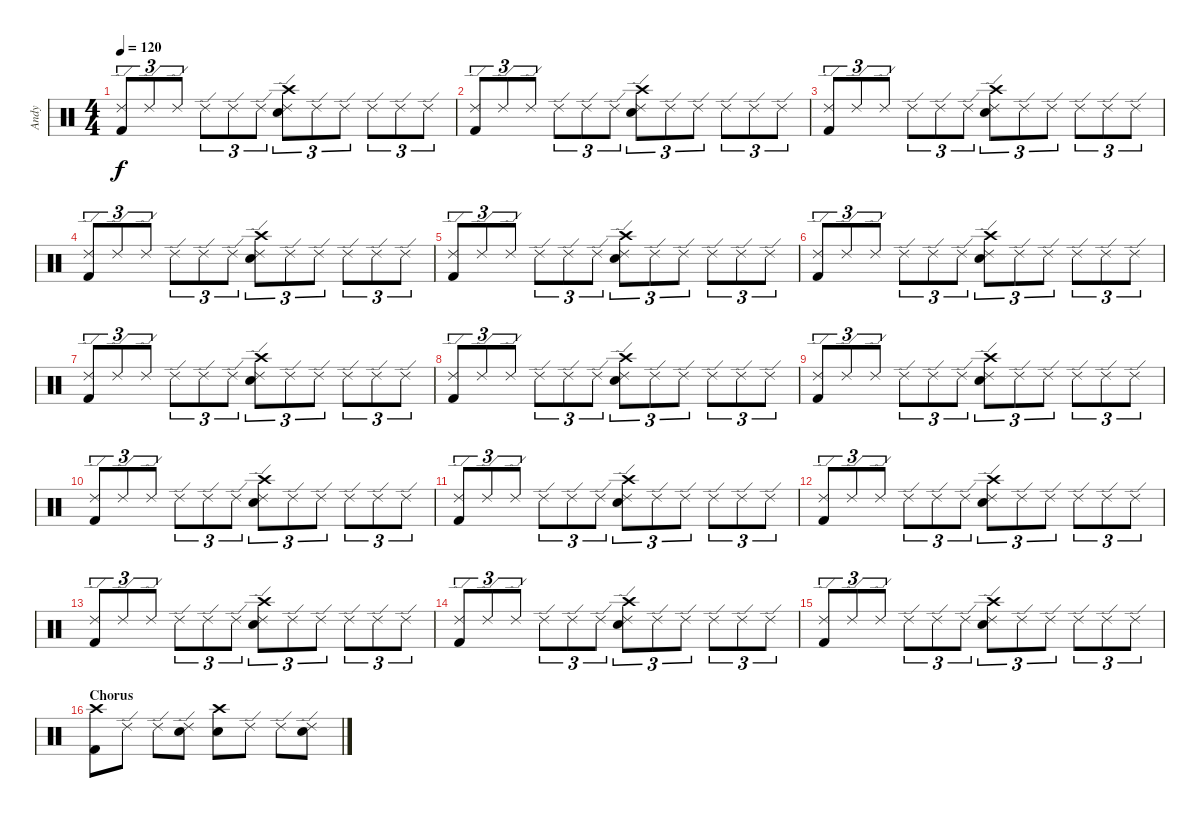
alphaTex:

\track ("Andy" "Andy") {instrument percussion}
\staff {score}
\articulation defaults
\ts (4 4)
\tempo 120
\clef neutral
\ks c
("Ride (edge) 2" "Kick (hit) 2").8{tu (3 2) dy f} "Ride (edge) 2".8{tu (3 2)} "Ride (edge) 2".8{tu (3 2)} "Ride (edge) 2".8{tu (3 2)} "Ride (edge) 2".8{tu (3 2)} "Ride (edge) 2".8{tu (3 2)} ("Crash high (hit)" "Ride (edge) 2" "Snare (hit) 2").8{tu (3 2)} "Ride (edge) 2".8{tu (3 2)} "Ride (edge) 2".8{tu (3 2)} "Ride (edge) 2".8{tu (3 2)} "Ride (edge) 2".8{tu (3 2)} "Ride (edge) 2".8{tu (3 2)} |
("Ride (edge) 2" "Kick (hit) 2").8{tu (3 2)} "Ride (edge) 2".8{tu (3 2)} "Ride (edge) 2".8{tu (3 2)} "Ride (edge) 2".8{tu (3 2)} "Ride (edge) 2".8{tu (3 2)} "Ride (edge) 2".8{tu (3 2)} ("Crash high (hit)" "Ride (edge) 2" "Snare (hit) 2").8{tu (3 2)} "Ride (edge) 2".8{tu (3 2)} "Ride (edge) 2".8{tu (3 2)} "Ride (edge) 2".8{tu (3 2)} "Ride (edge) 2".8{tu (3 2)} "Ride (edge) 2".8{tu (3 2)} |
("Ride (edge) 2" "Kick (hit) 2").8{tu (3 2)} "Ride (edge) 2".8{tu (3 2)} "Ride (edge) 2".8{tu (3 2)} "Ride (edge) 2".8{tu (3 2)} "Ride (edge) 2".8{tu (3 2)} "Ride (edge) 2".8{tu (3 2)} ("Crash high (hit)" "Ride (edge) 2" "Snare (hit) 2").8{tu (3 2)} "Ride (edge) 2".8{tu (3 2)} "Ride (edge) 2".8{tu (3 2)} "Ride (edge) 2".8{tu (3 2)} "Ride (edge) 2".8{tu (3 2)} "Ride (edge) 2".8{tu (3 2)} |
("Ride (edge) 2" "Kick (hit) 2").8{tu (3 2)} "Ride (edge) 2".8{tu (3 2)} "Ride (edge) 2".8{tu (3 2)} "Ride (edge) 2".8{tu (3 2)} "Ride (edge) 2".8{tu (3 2)} "Ride (edge) 2".8{tu (3 2)} ("Crash high (hit)" "Ride (edge) 2" "Snare (hit) 2").8{tu (3 2)} "Ride (edge) 2".8{tu (3 2)} "Ride (edge) 2".8{tu (3 2)} "Ride (edge) 2".8{tu (3 2)} "Ride (edge) 2".8{tu (3 2)} "Ride (edge) 2".8{tu (3 2)} |
("Ride (edge) 2" "Kick (hit) 2").8{tu (3 2)} "Ride (edge) 2".8{tu (3 2)} "Ride (edge) 2".8{tu (3 2)} "Ride (edge) 2".8{tu (3 2)} "Ride (edge) 2".8{tu (3 2)} "Ride (edge) 2".8{tu (3 2)} ("Crash high (hit)" "Ride (edge) 2" "Snare (hit) 2").8{tu (3 2)} "Ride (edge) 2".8{tu (3 2)} "Ride (edge) 2".8{tu (3 2)} "Ride (edge) 2".8{tu (3 2)} "Ride (edge) 2".8{tu (3 2)} "Ride (edge) 2".8{tu (3 2)} |
("Ride (edge) 2" "Kick (hit) 2").8{tu (3 2)} "Ride (edge) 2".8{tu (3 2)} "Ride (edge) 2".8{tu (3 2)} "Ride (edge) 2".8{tu (3 2)} "Ride (edge) 2".8{tu (3 2)} "Ride (edge) 2".8{tu (3 2)} ("Crash high (hit)" "Ride (edge) 2" "Snare (hit) 2").8{tu (3 2)} "Ride (edge) 2".8{tu (3 2)} "Ride (edge) 2".8{tu (3 2)} "Ride (edge) 2".8{tu (3 2)} "Ride (edge) 2".8{tu (3 2)} "Ride (edge) 2".8{tu (3 2)} |
("Ride (edge) 2" "Kick (hit) 2").8{tu (3 2)} "Ride (edge) 2".8{tu (3 2)} "Ride (edge) 2".8{tu (3 2)} "Ride (edge) 2".8{tu (3 2)} "Ride (edge) 2".8{tu (3 2)} "Ride (edge) 2".8{tu (3 2)} ("Crash high (hit)" "Ride (edge) 2" "Snare (hit) 2").8{tu (3 2)} "Ride (edge) 2".8{tu (3 2)} "Ride (edge) 2".8{tu (3 2)} "Ride (edge) 2".8{tu (3 2)} "Ride (edge) 2".8{tu (3 2)} "Ride (edge) 2".8{tu (3 2)} |
("Ride (edge) 2" "Kick (hit) 2").8{tu (3 2)} "Ride (edge) 2".8{tu (3 2)} "Ride (edge) 2".8{tu (3 2)} "Ride (edge) 2".8{tu (3 2)} "Ride (edge) 2".8{tu (3 2)} "Ride (edge) 2".8{tu (3 2)} ("Crash high (hit)" "Ride (edge) 2" "Snare (hit) 2").8{tu (3 2)} "Ride (edge) 2".8{tu (3 2)} "Ride (edge) 2".8{tu (3 2)} "Ride (edge) 2".8{tu (3 2)} "Ride (edge) 2".8{tu (3 2)} "Ride (edge) 2".8{tu (3 2)} |
("Ride (edge) 2" "Kick (hit) 2").8{tu (3 2)} "Ride (edge) 2".8{tu (3 2)} "Ride (edge) 2".8{tu (3 2)} "Ride (edge) 2".8{tu (3 2)} "Ride (edge) 2".8{tu (3 2)} "Ride (edge) 2".8{tu (3 2)} ("Crash high (hit)" "Ride (edge) 2" "Snare (hit) 2").8{tu (3 2)} "Ride (edge) 2".8{tu (3 2)} "Ride (edge) 2".8{tu (3 2)} "Ride (edge) 2".8{tu (3 2)} "Ride (edge) 2".8{tu (3 2)} "Ride (edge) 2".8{tu (3 2)} |
("Ride (edge) 2" "Kick (hit) 2").8{tu (3 2)} "Ride (edge) 2".8{tu (3 2)} "Ride (edge) 2".8{tu (3 2)} "Ride (edge) 2".8{tu (3 2)} "Ride (edge) 2".8{tu (3 2)} "Ride (edge) 2".8{tu (3 2)} ("Crash high (hit)" "Ride (edge) 2" "Snare (hit) 2").8{tu (3 2)} "Ride (edge) 2".8{tu (3 2)} "Ride (edge) 2".8{tu (3 2)} "Ride (edge) 2".8{tu (3 2)} "Ride (edge) 2".8{tu (3 2)} "Ride (edge) 2".8{tu (3 2)} |
("Ride (edge) 2" "Kick (hit) 2").8{tu (3 2)} "Ride (edge) 2".8{tu (3 2)} "Ride (edge) 2".8{tu (3 2)} "Ride (edge) 2".8{tu (3 2)} "Ride (edge) 2".8{tu (3 2)} "Ride (edge) 2".8{tu (3 2)} ("Crash high (hit)" "Ride (edge) 2" "Snare (hit) 2").8{tu (3 2)} "Ride (edge) 2".8{tu (3 2)} "Ride (edge) 2".8{tu (3 2)} "Ride (edge) 2".8{tu (3 2)} "Ride (edge) 2".8{tu (3 2)} "Ride (edge) 2".8{tu (3 2)} |
("Ride (edge) 2" "Kick (hit) 2").8{tu (3 2)} "Ride (edge) 2".8{tu (3 2)} "Ride (edge) 2".8{tu (3 2)} "Ride (edge) 2".8{tu (3 2)} "Ride (edge) 2".8{tu (3 2)} "Ride (edge) 2".8{tu (3 2)} ("Crash high (hit)" "Ride (edge) 2" "Snare (hit) 2").8{tu (3 2)} "Ride (edge) 2".8{tu (3 2)} "Ride (edge) 2".8{tu (3 2)} "Ride (edge) 2".8{tu (3 2)} "Ride (edge) 2".8{tu (3 2)} "Ride (edge) 2".8{tu (3 2)} |
("Ride (edge) 2" "Kick (hit) 2").8{tu (3 2)} "Ride (edge) 2".8{tu (3 2)} "Ride (edge) 2".8{tu (3 2)} "Ride (edge) 2".8{tu (3 2)} "Ride (edge) 2".8{tu (3 2)} "Ride (edge) 2".8{tu (3 2)} ("Crash high (hit)" "Ride (edge) 2" "Snare (hit) 2").8{tu (3 2)} "Ride (edge) 2".8{tu (3 2)} "Ride (edge) 2".8{tu (3 2)} "Ride (edge) 2".8{tu (3 2)} "Ride (edge) 2".8{tu (3 2)} "Ride (edge) 2".8{tu (3 2)} |
("Ride (edge) 2" "Kick (hit) 2").8{tu (3 2)} "Ride (edge) 2".8{tu (3 2)} "Ride (edge) 2".8{tu (3 2)} "Ride (edge) 2".8{tu (3 2)} "Ride (edge) 2".8{tu (3 2)} "Ride (edge) 2".8{tu (3 2)} ("Crash high (hit)" "Ride (edge) 2" "Snare (hit) 2").8{tu (3 2)} "Ride (edge) 2".8{tu (3 2)} "Ride (edge) 2".8{tu (3 2)} "Ride (edge) 2".8{tu (3 2)} "Ride (edge) 2".8{tu (3 2)} "Ride (edge) 2".8{tu (3 2)} |
("Ride (edge) 2" "Kick (hit) 2").8{tu (3 2)} "Ride (edge) 2".8{tu (3 2)} "Ride (edge) 2".8{tu (3 2)} "Ride (edge) 2".8{tu (3 2)} "Ride (edge) 2".8{tu (3 2)} "Ride (edge) 2".8{tu (3 2)} ("Crash high (hit)" "Ride (edge) 2" "Snare (hit) 2").8{tu (3 2)} "Ride (edge) 2".8{tu (3 2)} "Ride (edge) 2".8{tu (3 2)} "Ride (edge) 2".8{tu (3 2)} "Ride (edge) 2".8{tu (3 2)} "Ride (edge) 2".8{tu (3 2)} |
\section ("" "Chorus")
("Crash high (hit)" "Kick (hit) 2").8 "Ride (edge) 2".8 "Ride (edge) 2".8 ("Ride (edge) 2" "Snare (hit) 2").8 ("Crash high (hit)" "Snare (hit) 2").8 "Ride (edge) 2".8 "Ride (edge) 2".8 ("Ride (edge) 2" "Snare (hit) 2").8
